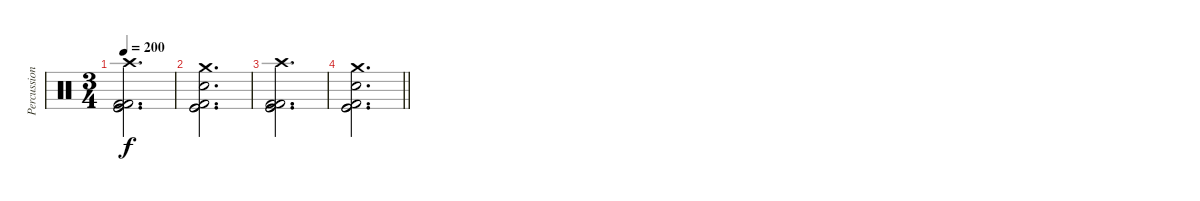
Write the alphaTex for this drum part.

\track ("Percussion" "Percussion") {instrument percussion}
\staff {score}
\articulation defaults
\ts (3 4)
\tempo 200
\clef neutral
\ks c
("Crash high (hit)" "Kick (hit) 2" "Kick (hit)" "Kick (hit) 2" "Kick (hit)").2{d dy f} |
("Electric Snare (hit)" "Crash medium (hit)" "Kick (hit)" "Kick (hit) 2" "Kick (hit)").2{d} |
("Crash high (hit)" "Kick (hit) 2" "Kick (hit)" "Kick (hit) 2" "Kick (hit)").2{d} |
\barLineRight lightlight
("Electric Snare (hit)" "Crash medium (hit)" "Kick (hit)" "Kick (hit) 2" "Kick (hit)").2{d}
